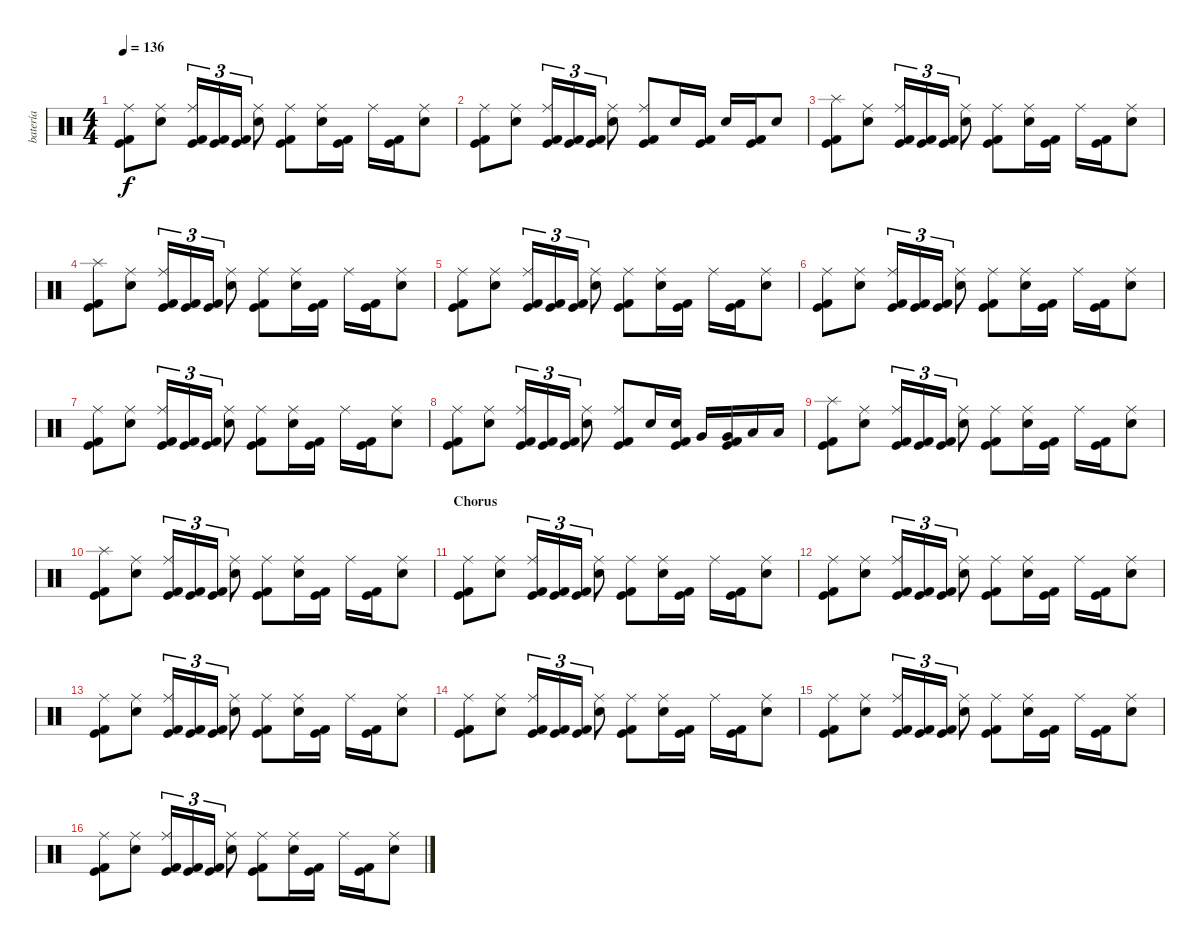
\track ("batería" "batería") {instrument percussion}
\staff {score}
\articulation defaults
\ts (4 4)
\tempo 136
\clef neutral
\ks c
("Kick (hit) 2" "Ride (middle)" "Kick (hit)").8{dy f} ("Snare (hit) 2" "Ride (middle)").8 ("Kick (hit) 2" "Ride (middle)" "Kick (hit)").16{tu (3 2)} ("Kick (hit) 2" "Kick (hit)").16{tu (3 2)} ("Kick (hit) 2" "Kick (hit)").16{tu (3 2)} ("Snare (hit) 2" "Ride (middle)").8 ("Kick (hit) 2" "Ride (middle)" "Kick (hit)").8 ("Snare (hit) 2" "Ride (middle)").16 ("Kick (hit) 2" "Kick (hit)").16 "Ride (middle)".16 ("Kick (hit) 2" "Kick (hit)").16 ("Snare (hit) 2" "Ride (middle)").8 |
("Kick (hit) 2" "Ride (middle)" "Kick (hit)").8 ("Snare (hit) 2" "Ride (middle)").8 ("Kick (hit) 2" "Ride (middle)" "Kick (hit)").16{tu (3 2)} ("Kick (hit) 2" "Kick (hit)").16{tu (3 2)} ("Kick (hit) 2" "Kick (hit)").16{tu (3 2)} ("Snare (hit) 2" "Ride (middle)").8 ("Kick (hit) 2" "Ride (middle)" "Kick (hit)").8 "Snare (hit) 2".16 ("Kick (hit) 2" "Kick (hit)").16 "Snare (hit) 2".16 ("Kick (hit) 2" "Kick (hit)").16 "Snare (hit) 2".8 |
("Kick (hit) 2" "Splash (hit)" "Kick (hit)").8 ("Snare (hit) 2" "Ride (middle)").8 ("Kick (hit) 2" "Ride (middle)" "Kick (hit)").16{tu (3 2)} ("Kick (hit) 2" "Kick (hit)").16{tu (3 2)} ("Kick (hit) 2" "Kick (hit)").16{tu (3 2)} ("Snare (hit) 2" "Ride (middle)").8 ("Kick (hit) 2" "Ride (middle)" "Kick (hit)").8 ("Snare (hit) 2" "Ride (middle)").16 ("Kick (hit) 2" "Kick (hit)").16 "Ride (middle)".16 ("Kick (hit) 2" "Kick (hit)").16 ("Snare (hit) 2" "Ride (middle)").8 |
("Kick (hit) 2" "Splash (hit)" "Kick (hit)").8 ("Snare (hit) 2" "Ride (middle)").8 ("Kick (hit) 2" "Ride (middle)" "Kick (hit)").16{tu (3 2)} ("Kick (hit) 2" "Kick (hit)").16{tu (3 2)} ("Kick (hit) 2" "Kick (hit)").16{tu (3 2)} ("Snare (hit) 2" "Ride (middle)").8 ("Kick (hit) 2" "Ride (middle)" "Kick (hit)").8 ("Snare (hit) 2" "Ride (middle)").16 ("Kick (hit) 2" "Kick (hit)").16 "Ride (middle)".16 ("Kick (hit) 2" "Kick (hit)").16 ("Snare (hit) 2" "Ride (middle)").8 |
\section ("" "")
("Kick (hit) 2" "Ride (middle)" "Kick (hit)").8 ("Snare (hit) 2" "Ride (middle)").8 ("Kick (hit) 2" "Ride (middle)" "Kick (hit)").16{tu (3 2)} ("Kick (hit) 2" "Kick (hit)").16{tu (3 2)} ("Kick (hit) 2" "Kick (hit)").16{tu (3 2)} ("Snare (hit) 2" "Ride (middle)").8 ("Kick (hit) 2" "Ride (middle)" "Kick (hit)").8 ("Snare (hit) 2" "Ride (middle)").16 ("Kick (hit) 2" "Kick (hit)").16 "Ride (middle)".16 ("Kick (hit) 2" "Kick (hit)").16 ("Snare (hit) 2" "Ride (middle)").8 |
("Kick (hit) 2" "Ride (middle)" "Kick (hit)").8 ("Snare (hit) 2" "Ride (middle)").8 ("Kick (hit) 2" "Ride (middle)" "Kick (hit)").16{tu (3 2)} ("Kick (hit) 2" "Kick (hit)").16{tu (3 2)} ("Kick (hit) 2" "Kick (hit)").16{tu (3 2)} ("Snare (hit) 2" "Ride (middle)").8 ("Kick (hit) 2" "Ride (middle)" "Kick (hit)").8 ("Snare (hit) 2" "Ride (middle)").16 ("Kick (hit) 2" "Kick (hit)").16 "Ride (middle)".16 ("Kick (hit) 2" "Kick (hit)").16 ("Snare (hit) 2" "Ride (middle)").8 |
("Kick (hit) 2" "Ride (middle)" "Kick (hit)").8 ("Snare (hit) 2" "Ride (middle)").8 ("Kick (hit) 2" "Ride (middle)" "Kick (hit)").16{tu (3 2)} ("Kick (hit) 2" "Kick (hit)").16{tu (3 2)} ("Kick (hit) 2" "Kick (hit)").16{tu (3 2)} ("Snare (hit) 2" "Ride (middle)").8 ("Kick (hit) 2" "Ride (middle)" "Kick (hit)").8 ("Snare (hit) 2" "Ride (middle)").16 ("Kick (hit) 2" "Kick (hit)").16 "Ride (middle)".16 ("Kick (hit) 2" "Kick (hit)").16 ("Snare (hit) 2" "Ride (middle)").8 |
("Kick (hit) 2" "Ride (middle)" "Kick (hit)").8 ("Snare (hit) 2" "Ride (middle)").8 ("Kick (hit) 2" "Ride (middle)" "Kick (hit)").16{tu (3 2)} ("Kick (hit) 2" "Kick (hit)").16{tu (3 2)} ("Kick (hit) 2" "Kick (hit)").16{tu (3 2)} ("Snare (hit) 2" "Ride (middle)").8 ("Kick (hit) 2" "Ride (middle)" "Kick (hit)").8 "Snare (hit) 2".16 ("Snare (hit) 2" "Kick (hit) 2" "Kick (hit)").16 "Very Low Tom (hit)".16 ("Kick (hit) 2" "Very Low Tom (hit)" "Kick (hit)").16 "Low Tom (hit)".16 "Low Tom (hit)".16 |
("Kick (hit) 2" "Splash (hit)" "Kick (hit)").8 ("Snare (hit) 2" "Ride (middle)").8 ("Kick (hit) 2" "Ride (middle)" "Kick (hit)").16{tu (3 2)} ("Kick (hit) 2" "Kick (hit)").16{tu (3 2)} ("Kick (hit) 2" "Kick (hit)").16{tu (3 2)} ("Snare (hit) 2" "Ride (middle)").8 ("Kick (hit) 2" "Ride (middle)" "Kick (hit)").8 ("Snare (hit) 2" "Ride (middle)").16 ("Kick (hit) 2" "Kick (hit)").16 "Ride (middle)".16 ("Kick (hit) 2" "Kick (hit)").16 ("Snare (hit) 2" "Ride (middle)").8 |
("Kick (hit) 2" "Splash (hit)" "Kick (hit)").8 ("Snare (hit) 2" "Ride (middle)").8 ("Kick (hit) 2" "Ride (middle)" "Kick (hit)").16{tu (3 2)} ("Kick (hit) 2" "Kick (hit)").16{tu (3 2)} ("Kick (hit) 2" "Kick (hit)").16{tu (3 2)} ("Snare (hit) 2" "Ride (middle)").8 ("Kick (hit) 2" "Ride (middle)" "Kick (hit)").8 ("Snare (hit) 2" "Ride (middle)").16 ("Kick (hit) 2" "Kick (hit)").16 "Ride (middle)".16 ("Kick (hit) 2" "Kick (hit)").16 ("Snare (hit) 2" "Ride (middle)").8 |
\section ("" "Chorus")
("Kick (hit) 2" "Ride (middle)" "Kick (hit)").8 ("Snare (hit) 2" "Ride (middle)").8 ("Kick (hit) 2" "Ride (middle)" "Kick (hit)").16{tu (3 2)} ("Kick (hit) 2" "Kick (hit)").16{tu (3 2)} ("Kick (hit) 2" "Kick (hit)").16{tu (3 2)} ("Snare (hit) 2" "Ride (middle)").8 ("Kick (hit) 2" "Ride (middle)" "Kick (hit)").8 ("Snare (hit) 2" "Ride (middle)").16 ("Kick (hit) 2" "Kick (hit)").16 "Ride (middle)".16 ("Kick (hit) 2" "Kick (hit)").16 ("Snare (hit) 2" "Ride (middle)").8 |
("Kick (hit) 2" "Ride (middle)" "Kick (hit)").8 ("Snare (hit) 2" "Ride (middle)").8 ("Kick (hit) 2" "Ride (middle)" "Kick (hit)").16{tu (3 2)} ("Kick (hit) 2" "Kick (hit)").16{tu (3 2)} ("Kick (hit) 2" "Kick (hit)").16{tu (3 2)} ("Snare (hit) 2" "Ride (middle)").8 ("Kick (hit) 2" "Ride (middle)" "Kick (hit)").8 ("Snare (hit) 2" "Ride (middle)").16 ("Kick (hit) 2" "Kick (hit)").16 "Ride (middle)".16 ("Kick (hit) 2" "Kick (hit)").16 ("Snare (hit) 2" "Ride (middle)").8 |
("Kick (hit) 2" "Ride (middle)" "Kick (hit)").8 ("Snare (hit) 2" "Ride (middle)").8 ("Kick (hit) 2" "Ride (middle)" "Kick (hit)").16{tu (3 2)} ("Kick (hit) 2" "Kick (hit)").16{tu (3 2)} ("Kick (hit) 2" "Kick (hit)").16{tu (3 2)} ("Snare (hit) 2" "Ride (middle)").8 ("Kick (hit) 2" "Ride (middle)" "Kick (hit)").8 ("Snare (hit) 2" "Ride (middle)").16 ("Kick (hit) 2" "Kick (hit)").16 "Ride (middle)".16 ("Kick (hit) 2" "Kick (hit)").16 ("Snare (hit) 2" "Ride (middle)").8 |
("Kick (hit) 2" "Ride (middle)" "Kick (hit)").8 ("Snare (hit) 2" "Ride (middle)").8 ("Kick (hit) 2" "Ride (middle)" "Kick (hit)").16{tu (3 2)} ("Kick (hit) 2" "Kick (hit)").16{tu (3 2)} ("Kick (hit) 2" "Kick (hit)").16{tu (3 2)} ("Snare (hit) 2" "Ride (middle)").8 ("Kick (hit) 2" "Ride (middle)" "Kick (hit)").8 ("Snare (hit) 2" "Ride (middle)").16 ("Kick (hit) 2" "Kick (hit)").16 "Ride (middle)".16 ("Kick (hit) 2" "Kick (hit)").16 ("Snare (hit) 2" "Ride (middle)").8 |
("Kick (hit) 2" "Ride (middle)" "Kick (hit)").8 ("Snare (hit) 2" "Ride (middle)").8 ("Kick (hit) 2" "Ride (middle)" "Kick (hit)").16{tu (3 2)} ("Kick (hit) 2" "Kick (hit)").16{tu (3 2)} ("Kick (hit) 2" "Kick (hit)").16{tu (3 2)} ("Snare (hit) 2" "Ride (middle)").8 ("Kick (hit) 2" "Ride (middle)" "Kick (hit)").8 ("Snare (hit) 2" "Ride (middle)").16 ("Kick (hit) 2" "Kick (hit)").16 "Ride (middle)".16 ("Kick (hit) 2" "Kick (hit)").16 ("Snare (hit) 2" "Ride (middle)").8 |
("Kick (hit) 2" "Ride (middle)" "Kick (hit)").8 ("Snare (hit) 2" "Ride (middle)").8 ("Kick (hit) 2" "Ride (middle)" "Kick (hit)").16{tu (3 2)} ("Kick (hit) 2" "Kick (hit)").16{tu (3 2)} ("Kick (hit) 2" "Kick (hit)").16{tu (3 2)} ("Snare (hit) 2" "Ride (middle)").8 ("Kick (hit) 2" "Ride (middle)" "Kick (hit)").8 ("Snare (hit) 2" "Ride (middle)").16 ("Kick (hit) 2" "Kick (hit)").16 "Ride (middle)".16 ("Kick (hit) 2" "Kick (hit)").16 ("Snare (hit) 2" "Ride (middle)").8
